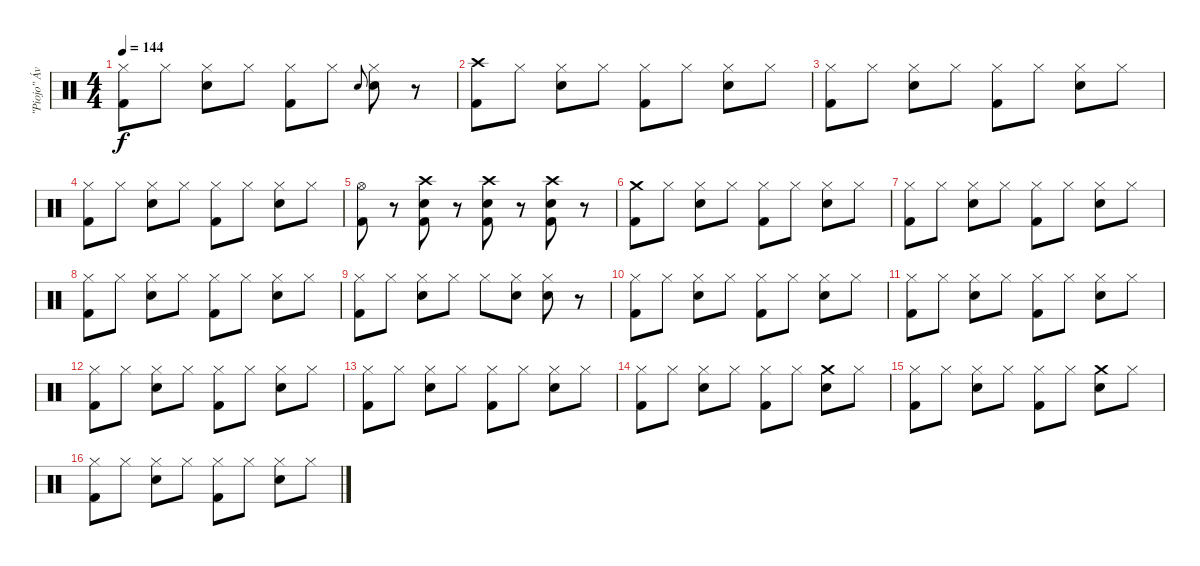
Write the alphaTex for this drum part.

\track ("\"Piojo\" Ávalos" "\"Piojo\" Áv") {instrument percussion}
\staff {score}
\articulation defaults
\ts (4 4)
\tempo 144
\clef neutral
\ks c
("Hi-Hat (closed)" "Kick (hit) 2").8{dy f} "Hi-Hat (closed)".8 ("Hi-Hat (closed)" "Electric Snare (hit)").8 "Hi-Hat (closed)".8 ("Hi-Hat (closed)" "Kick (hit) 2").8 "Hi-Hat (closed)".8 "Electric Snare (hit)".8{gr onbeat} ("Hi-Hat (closed)" "Electric Snare (hit)").8 r.8 |
("Crash high (hit)" "Kick (hit) 2").8 "Hi-Hat (closed)".8 ("Hi-Hat (closed)" "Electric Snare (hit)").8 "Hi-Hat (closed)".8 ("Hi-Hat (closed)" "Kick (hit) 2").8 "Hi-Hat (closed)".8 ("Hi-Hat (closed)" "Electric Snare (hit)").8 "Hi-Hat (closed)".8 |
("Hi-Hat (closed)" "Kick (hit) 2").8 "Hi-Hat (closed)".8 ("Hi-Hat (closed)" "Electric Snare (hit)").8 "Hi-Hat (closed)".8 ("Hi-Hat (closed)" "Kick (hit) 2").8 "Hi-Hat (closed)".8 ("Hi-Hat (closed)" "Electric Snare (hit)").8 "Hi-Hat (closed)".8 |
("Hi-Hat (closed)" "Kick (hit) 2").8 "Hi-Hat (closed)".8 ("Hi-Hat (closed)" "Electric Snare (hit)").8 "Hi-Hat (closed)".8 ("Hi-Hat (closed)" "Kick (hit) 2").8 "Hi-Hat (closed)".8 ("Hi-Hat (closed)" "Electric Snare (hit)").8 "Hi-Hat (closed)".8 |
("Hi-Hat (open)" "Kick (hit) 2").8 r.8 ("Crash high (hit)" "Kick (hit) 2" "Electric Snare (hit)").8 r.8 ("Crash high (hit)" "Kick (hit) 2" "Electric Snare (hit)").8 r.8 ("Crash high (hit)" "Kick (hit) 2" "Electric Snare (hit)").8 r.8 |
("Crash medium (hit)" "Kick (hit) 2").8 "Hi-Hat (closed)".8 ("Hi-Hat (closed)" "Electric Snare (hit)").8 "Hi-Hat (closed)".8 ("Hi-Hat (closed)" "Kick (hit) 2").8 "Hi-Hat (closed)".8 ("Hi-Hat (closed)" "Electric Snare (hit)").8 "Hi-Hat (closed)".8 |
("Hi-Hat (closed)" "Kick (hit) 2").8 "Hi-Hat (closed)".8 ("Hi-Hat (closed)" "Electric Snare (hit)").8 "Hi-Hat (closed)".8 ("Hi-Hat (closed)" "Kick (hit) 2").8 "Hi-Hat (closed)".8 ("Hi-Hat (closed)" "Electric Snare (hit)").8 "Hi-Hat (closed)".8 |
("Hi-Hat (closed)" "Kick (hit) 2").8 "Hi-Hat (closed)".8 ("Hi-Hat (closed)" "Electric Snare (hit)").8 "Hi-Hat (closed)".8 ("Hi-Hat (closed)" "Kick (hit) 2").8 "Hi-Hat (closed)".8 ("Hi-Hat (closed)" "Electric Snare (hit)").8 "Hi-Hat (closed)".8 |
("Hi-Hat (closed)" "Kick (hit) 2").8 "Hi-Hat (closed)".8 ("Hi-Hat (closed)" "Electric Snare (hit)").8 "Hi-Hat (closed)".8 "Hi-Hat (closed)".8 ("Hi-Hat (closed)" "Electric Snare (hit)").8 ("Hi-Hat (closed)" "Electric Snare (hit)").8 r.8 |
("Hi-Hat (closed)" "Kick (hit) 2").8 "Hi-Hat (closed)".8 ("Hi-Hat (closed)" "Electric Snare (hit)").8 "Hi-Hat (closed)".8 ("Hi-Hat (closed)" "Kick (hit) 2").8 "Hi-Hat (closed)".8 ("Hi-Hat (closed)" "Electric Snare (hit)").8 "Hi-Hat (closed)".8 |
("Hi-Hat (closed)" "Kick (hit) 2").8 "Hi-Hat (closed)".8 ("Hi-Hat (closed)" "Electric Snare (hit)").8 "Hi-Hat (closed)".8 ("Hi-Hat (closed)" "Kick (hit) 2").8 "Hi-Hat (closed)".8 ("Hi-Hat (closed)" "Electric Snare (hit)").8 "Hi-Hat (closed)".8 |
("Hi-Hat (closed)" "Kick (hit) 2").8 "Hi-Hat (closed)".8 ("Hi-Hat (closed)" "Electric Snare (hit)").8 "Hi-Hat (closed)".8 ("Hi-Hat (closed)" "Kick (hit) 2").8 "Hi-Hat (closed)".8 ("Hi-Hat (closed)" "Electric Snare (hit)").8 "Hi-Hat (closed)".8 |
("Hi-Hat (closed)" "Kick (hit) 2").8 "Hi-Hat (closed)".8 ("Hi-Hat (closed)" "Electric Snare (hit)").8 "Hi-Hat (closed)".8 ("Hi-Hat (closed)" "Kick (hit) 2").8 "Hi-Hat (closed)".8 ("Hi-Hat (closed)" "Electric Snare (hit)").8 "Hi-Hat (closed)".8 |
("Hi-Hat (closed)" "Kick (hit) 2").8 "Hi-Hat (closed)".8 ("Hi-Hat (closed)" "Electric Snare (hit)").8 "Hi-Hat (closed)".8 ("Hi-Hat (closed)" "Kick (hit) 2").8 "Hi-Hat (closed)".8 ("Crash medium (hit)" "Electric Snare (hit)").8 "Hi-Hat (closed)".8 |
("Hi-Hat (closed)" "Kick (hit) 2").8 "Hi-Hat (closed)".8 ("Hi-Hat (closed)" "Electric Snare (hit)").8 "Hi-Hat (closed)".8 ("Hi-Hat (closed)" "Kick (hit) 2").8 "Hi-Hat (closed)".8 ("Crash medium (hit)" "Electric Snare (hit)").8 "Hi-Hat (closed)".8 |
("Hi-Hat (closed)" "Kick (hit) 2").8 "Hi-Hat (closed)".8 ("Hi-Hat (closed)" "Electric Snare (hit)").8 "Hi-Hat (closed)".8 ("Hi-Hat (closed)" "Kick (hit) 2").8 "Hi-Hat (closed)".8 ("Hi-Hat (closed)" "Electric Snare (hit)").8 "Hi-Hat (closed)".8
